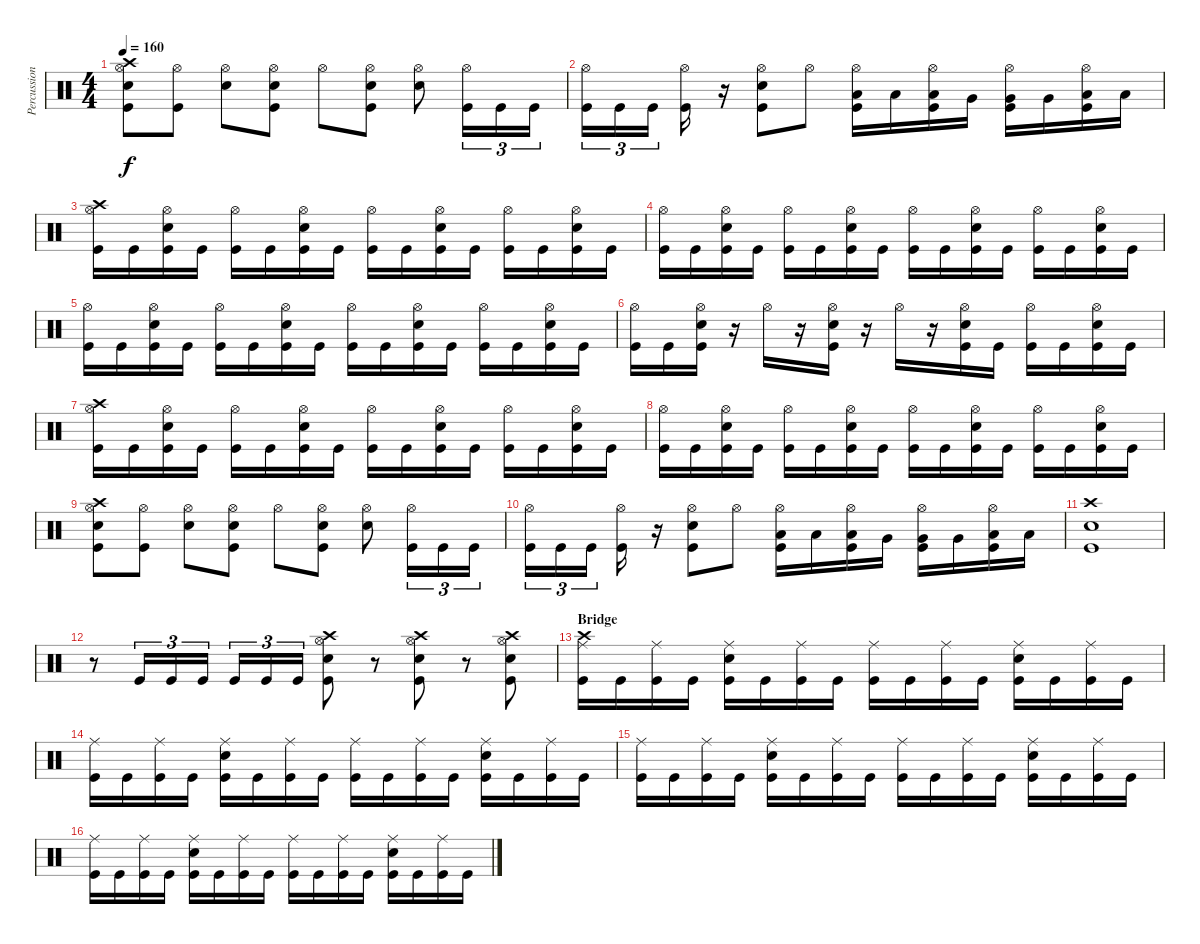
\track ("Percussion" "Percussion") {instrument percussion}
\staff {score}
\articulation defaults
\ts (4 4)
\tempo 160
\clef neutral
\ks c
("Crash high (hit)" "Hi-Hat (open)" "Electric Snare (hit)" "Kick (hit)").8{dy f} ("Hi-Hat (open)" "Kick (hit)").8 ("Hi-Hat (open)" "Electric Snare (hit)").8 ("Hi-Hat (open)" "Electric Snare (hit)" "Kick (hit)").8 "Hi-Hat (open)".8 ("Hi-Hat (open)" "Electric Snare (hit)" "Kick (hit)").8 ("Hi-Hat (open)" "Electric Snare (hit)").8 ("Hi-Hat (open)" "Kick (hit)").16{tu (3 2)} "Kick (hit)".16{tu (3 2)} "Kick (hit)".16{tu (3 2)} |
("Hi-Hat (open)" "Kick (hit)").16{tu (3 2)} "Kick (hit)".16{tu (3 2)} "Kick (hit)".16{tu (3 2)} ("Hi-Hat (open)" "Kick (hit)").16 r.16 ("Hi-Hat (open)" "Electric Snare (hit)" "Kick (hit)").8 "Hi-Hat (open)".8 ("Hi-Hat (open)" "Low Tom (hit)" "Kick (hit)").16 "Low Tom (hit)".16 ("Hi-Hat (open)" "Low Tom (hit)" "Kick (hit)").16 "Very Low Tom (hit)".16 ("Hi-Hat (open)" "Very Low Tom (hit)" "Kick (hit)").16 "Very Low Tom (hit)".16 ("Hi-Hat (open)" "Low Floor Tom (hit)" "Kick (hit)").16 "Low Floor Tom (hit)".16 |
("Crash high (hit)" "Hi-Hat (open)" "Kick (hit)").16 "Kick (hit)".16 ("Electric Snare (hit)" "Hi-Hat (open)" "Kick (hit)").16 "Kick (hit)".16 ("Hi-Hat (open)" "Kick (hit)").16 "Kick (hit)".16 ("Electric Snare (hit)" "Hi-Hat (open)" "Kick (hit)").16 "Kick (hit)".16 ("Hi-Hat (open)" "Kick (hit)").16 "Kick (hit)".16 ("Electric Snare (hit)" "Hi-Hat (open)" "Kick (hit)").16 "Kick (hit)".16 ("Hi-Hat (open)" "Kick (hit)").16 "Kick (hit)".16 ("Electric Snare (hit)" "Hi-Hat (open)" "Kick (hit)").16 "Kick (hit)".16 |
("Hi-Hat (open)" "Kick (hit)").16 "Kick (hit)".16 ("Electric Snare (hit)" "Hi-Hat (open)" "Kick (hit)").16 "Kick (hit)".16 ("Hi-Hat (open)" "Kick (hit)").16 "Kick (hit)".16 ("Electric Snare (hit)" "Hi-Hat (open)" "Kick (hit)").16 "Kick (hit)".16 ("Hi-Hat (open)" "Kick (hit)").16 "Kick (hit)".16 ("Electric Snare (hit)" "Hi-Hat (open)" "Kick (hit)").16 "Kick (hit)".16 ("Hi-Hat (open)" "Kick (hit)").16 "Kick (hit)".16 ("Electric Snare (hit)" "Hi-Hat (open)" "Kick (hit)").16 "Kick (hit)".16 |
("Hi-Hat (open)" "Kick (hit)").16 "Kick (hit)".16 ("Electric Snare (hit)" "Hi-Hat (open)" "Kick (hit)").16 "Kick (hit)".16 ("Hi-Hat (open)" "Kick (hit)").16 "Kick (hit)".16 ("Electric Snare (hit)" "Hi-Hat (open)" "Kick (hit)").16 "Kick (hit)".16 ("Hi-Hat (open)" "Kick (hit)").16 "Kick (hit)".16 ("Electric Snare (hit)" "Hi-Hat (open)" "Kick (hit)").16 "Kick (hit)".16 ("Hi-Hat (open)" "Kick (hit)").16 "Kick (hit)".16 ("Electric Snare (hit)" "Hi-Hat (open)" "Kick (hit)").16 "Kick (hit)".16 |
("Hi-Hat (open)" "Kick (hit)").16 "Kick (hit)".16 ("Electric Snare (hit)" "Hi-Hat (open)" "Kick (hit)").16 r.16 "Hi-Hat (open)".16 r.16 ("Electric Snare (hit)" "Hi-Hat (open)" "Kick (hit)").16 r.16 "Hi-Hat (open)".16 r.16 ("Electric Snare (hit)" "Hi-Hat (open)" "Kick (hit)").16 "Kick (hit)".16 ("Hi-Hat (open)" "Kick (hit)").16 "Kick (hit)".16 ("Electric Snare (hit)" "Hi-Hat (open)" "Kick (hit)").16 "Kick (hit)".16 |
("Crash high (hit)" "Hi-Hat (open)" "Kick (hit)").16 "Kick (hit)".16 ("Electric Snare (hit)" "Hi-Hat (open)" "Kick (hit)").16 "Kick (hit)".16 ("Hi-Hat (open)" "Kick (hit)").16 "Kick (hit)".16 ("Electric Snare (hit)" "Hi-Hat (open)" "Kick (hit)").16 "Kick (hit)".16 ("Hi-Hat (open)" "Kick (hit)").16 "Kick (hit)".16 ("Electric Snare (hit)" "Hi-Hat (open)" "Kick (hit)").16 "Kick (hit)".16 ("Hi-Hat (open)" "Kick (hit)").16 "Kick (hit)".16 ("Electric Snare (hit)" "Hi-Hat (open)" "Kick (hit)").16 "Kick (hit)".16 |
("Hi-Hat (open)" "Kick (hit)").16 "Kick (hit)".16 ("Electric Snare (hit)" "Hi-Hat (open)" "Kick (hit)").16 "Kick (hit)".16 ("Hi-Hat (open)" "Kick (hit)").16 "Kick (hit)".16 ("Electric Snare (hit)" "Hi-Hat (open)" "Kick (hit)").16 "Kick (hit)".16 ("Hi-Hat (open)" "Kick (hit)").16 "Kick (hit)".16 ("Electric Snare (hit)" "Hi-Hat (open)" "Kick (hit)").16 "Kick (hit)".16 ("Hi-Hat (open)" "Kick (hit)").16 "Kick (hit)".16 ("Electric Snare (hit)" "Hi-Hat (open)" "Kick (hit)").16 "Kick (hit)".16 |
("Crash high (hit)" "Hi-Hat (open)" "Electric Snare (hit)" "Kick (hit)").8 ("Hi-Hat (open)" "Kick (hit)").8 ("Hi-Hat (open)" "Electric Snare (hit)").8 ("Hi-Hat (open)" "Electric Snare (hit)" "Kick (hit)").8 "Hi-Hat (open)".8 ("Hi-Hat (open)" "Electric Snare (hit)" "Kick (hit)").8 ("Hi-Hat (open)" "Electric Snare (hit)").8 ("Hi-Hat (open)" "Kick (hit)").16{tu (3 2)} "Kick (hit)".16{tu (3 2)} "Kick (hit)".16{tu (3 2)} |
("Hi-Hat (open)" "Kick (hit)").16{tu (3 2)} "Kick (hit)".16{tu (3 2)} "Kick (hit)".16{tu (3 2)} ("Hi-Hat (open)" "Kick (hit)").16 r.16 ("Hi-Hat (open)" "Electric Snare (hit)" "Kick (hit)").8 "Hi-Hat (open)".8 ("Hi-Hat (open)" "Low Tom (hit)" "Kick (hit)").16 "Low Tom (hit)".16 ("Hi-Hat (open)" "Low Tom (hit)" "Kick (hit)").16 "Very Low Tom (hit)".16 ("Hi-Hat (open)" "Very Low Tom (hit)" "Kick (hit)").16 "Very Low Tom (hit)".16 ("Hi-Hat (open)" "Low Floor Tom (hit)" "Kick (hit)").16 "Low Floor Tom (hit)".16 |
("Crash high (hit)" "Electric Snare (hit)" "Kick (hit)").1 |
r.8 "Kick (hit)".16{tu (3 2)} "Kick (hit)".16{tu (3 2)} "Kick (hit)".16{tu (3 2)} "Kick (hit)".16{tu (3 2)} "Kick (hit)".16{tu (3 2)} "Kick (hit)".16{tu (3 2)} ("Crash high (hit)" "Electric Snare (hit)" "Hi-Hat (open)" "Kick (hit)").8 r.8 ("Crash high (hit)" "Electric Snare (hit)" "Hi-Hat (open)" "Kick (hit)").8 r.8 ("Crash high (hit)" "Electric Snare (hit)" "Hi-Hat (open)" "Kick (hit)").8 |
\section ("" "Bridge")
("Crash high (hit)" "Ride (middle)" "Kick (hit)").16 "Kick (hit)".16 ("Ride (middle)" "Kick (hit)").16 "Kick (hit)".16 ("Electric Snare (hit)" "Ride (middle)" "Kick (hit)").16 "Kick (hit)".16 ("Ride (middle)" "Kick (hit)").16 "Kick (hit)".16 ("Ride (middle)" "Kick (hit)").16 "Kick (hit)".16 ("Ride (middle)" "Kick (hit)").16 "Kick (hit)".16 ("Electric Snare (hit)" "Ride (middle)" "Kick (hit)").16 "Kick (hit)".16 ("Ride (middle)" "Kick (hit)").16 "Kick (hit)".16 |
("Ride (middle)" "Kick (hit)").16 "Kick (hit)".16 ("Ride (middle)" "Kick (hit)").16 "Kick (hit)".16 ("Electric Snare (hit)" "Ride (middle)" "Kick (hit)").16 "Kick (hit)".16 ("Ride (middle)" "Kick (hit)").16 "Kick (hit)".16 ("Ride (middle)" "Kick (hit)").16 "Kick (hit)".16 ("Ride (middle)" "Kick (hit)").16 "Kick (hit)".16 ("Electric Snare (hit)" "Ride (middle)" "Kick (hit)").16 "Kick (hit)".16 ("Ride (middle)" "Kick (hit)").16 "Kick (hit)".16 |
("Ride (middle)" "Kick (hit)").16 "Kick (hit)".16 ("Ride (middle)" "Kick (hit)").16 "Kick (hit)".16 ("Electric Snare (hit)" "Ride (middle)" "Kick (hit)").16 "Kick (hit)".16 ("Ride (middle)" "Kick (hit)").16 "Kick (hit)".16 ("Ride (middle)" "Kick (hit)").16 "Kick (hit)".16 ("Ride (middle)" "Kick (hit)").16 "Kick (hit)".16 ("Electric Snare (hit)" "Ride (middle)" "Kick (hit)").16 "Kick (hit)".16 ("Ride (middle)" "Kick (hit)").16 "Kick (hit)".16 |
("Ride (middle)" "Kick (hit)").16 "Kick (hit)".16 ("Ride (middle)" "Kick (hit)").16 "Kick (hit)".16 ("Electric Snare (hit)" "Ride (middle)" "Kick (hit)").16 "Kick (hit)".16 ("Ride (middle)" "Kick (hit)").16 "Kick (hit)".16 ("Ride (middle)" "Kick (hit)").16 "Kick (hit)".16 ("Ride (middle)" "Kick (hit)").16 "Kick (hit)".16 ("Electric Snare (hit)" "Ride (middle)" "Kick (hit)").16 "Kick (hit)".16 ("Ride (middle)" "Kick (hit)").16 "Kick (hit)".16
